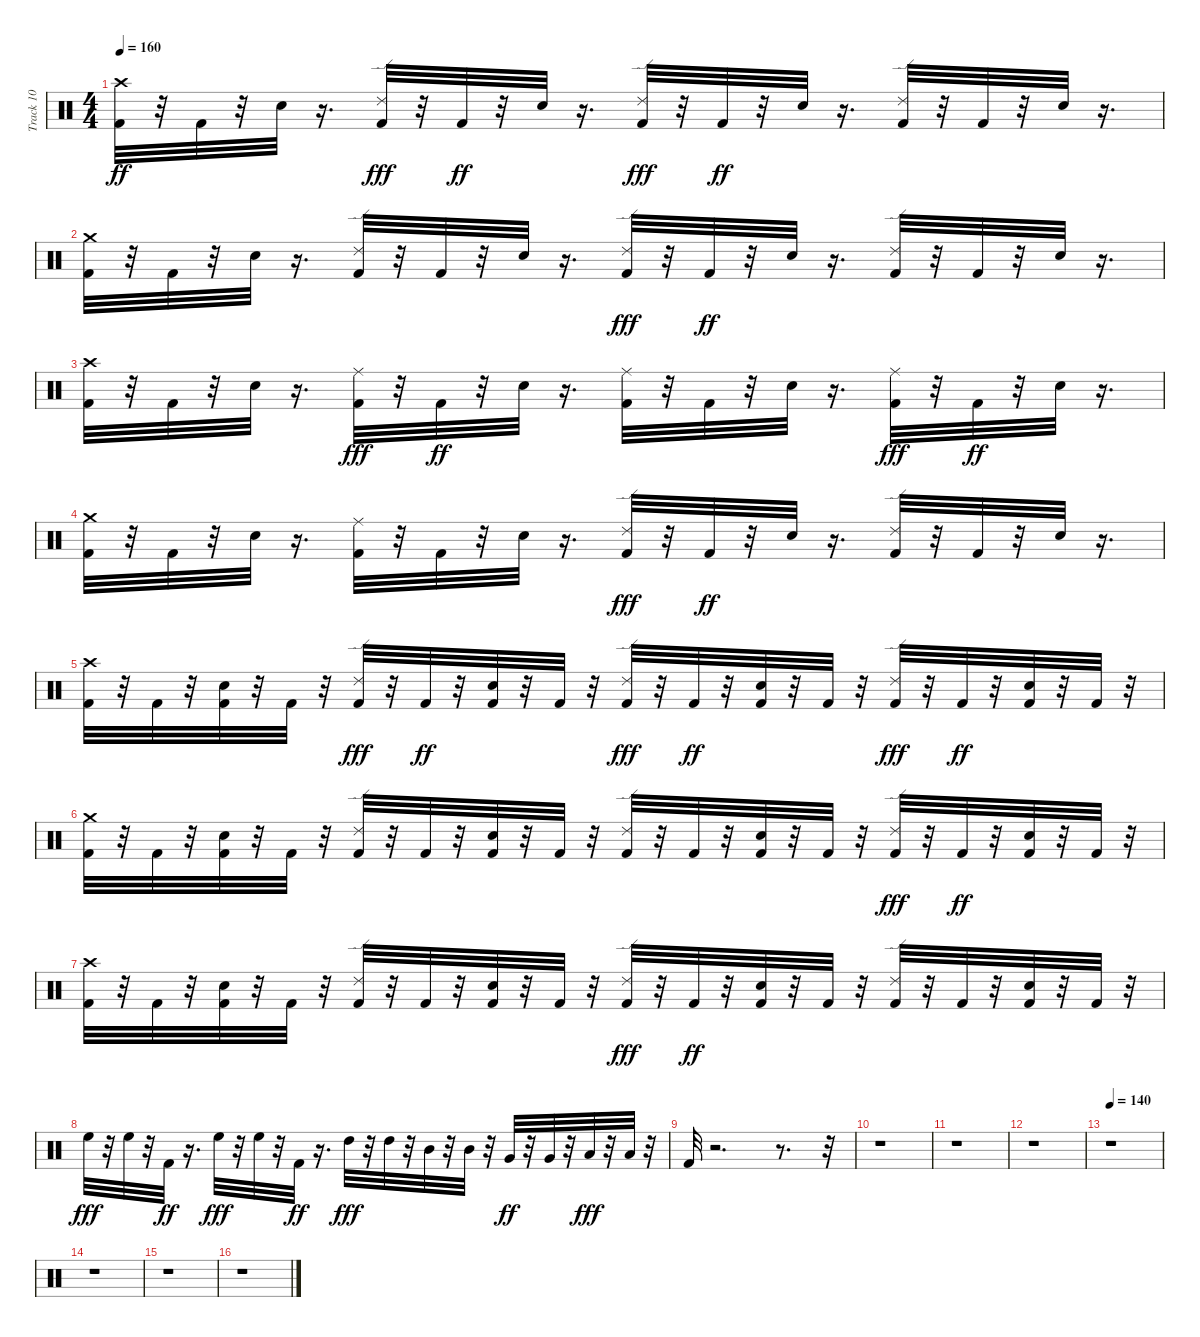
\track ("Track 10" "Track 10") {instrument percussion}
\staff {score}
\articulation defaults
\ts (4 4)
\tempo 160
\clef neutral
\ks c
("Kick (hit) 2" "Crash high (hit)").32{dy ff} r.32 "Kick (hit) 2".32 r.32 "Electric Snare (hit)".32 r.16{d} ("Kick (hit) 2" "Ride (edge) 2").32{dy fff} r.32 "Kick (hit) 2".32{dy ff} r.32 "Electric Snare (hit)".32 r.16{d} ("Kick (hit) 2" "Ride (edge) 2").32{dy fff} r.32 "Kick (hit) 2".32{dy ff} r.32 "Electric Snare (hit)".32 r.16{d} ("Ride (edge) 2" "Kick (hit) 2").32 r.32 "Kick (hit) 2".32 r.32 "Electric Snare (hit)".32 r.16{d} |
("Crash medium (hit)" "Kick (hit) 2").32 r.32 "Kick (hit) 2".32 r.32 "Electric Snare (hit)".32 r.16{d} ("Ride (edge) 2" "Kick (hit) 2").32 r.32 "Kick (hit) 2".32 r.32 "Electric Snare (hit)".32 r.16{d} ("Kick (hit) 2" "Ride (edge) 2").32{dy fff} r.32 "Kick (hit) 2".32{dy ff} r.32 "Electric Snare (hit)".32 r.16{d} ("Ride (edge) 2" "Kick (hit) 2").32 r.32 "Kick (hit) 2".32 r.32 "Electric Snare (hit)".32 r.16{d} |
("Crash high (hit)" "Kick (hit) 2").32 r.32 "Kick (hit) 2".32 r.32 "Electric Snare (hit)".32 r.16{d} ("Kick (hit) 2" "Ride (middle)").32{dy fff} r.32 "Kick (hit) 2".32{dy ff} r.32 "Electric Snare (hit)".32 r.16{d} ("Ride (middle)" "Kick (hit) 2").32 r.32 "Kick (hit) 2".32 r.32 "Electric Snare (hit)".32 r.16{d} ("Kick (hit) 2" "Ride (middle)").32{dy fff} r.32 "Kick (hit) 2".32{dy ff} r.32 "Electric Snare (hit)".32 r.16{d} |
("Kick (hit) 2" "Crash medium (hit)").32 r.32 "Kick (hit) 2".32 r.32 "Electric Snare (hit)".32 r.16{d} ("Ride (middle)" "Kick (hit) 2").32 r.32 "Kick (hit) 2".32 r.32 "Electric Snare (hit)".32 r.16{d} ("Kick (hit) 2" "Ride (edge) 2").32{dy fff} r.32 "Kick (hit) 2".32{dy ff} r.32 "Electric Snare (hit)".32 r.16{d} ("Ride (edge) 2" "Kick (hit) 2").32 r.32 "Kick (hit) 2".32 r.32 "Electric Snare (hit)".32 r.16{d} |
("Crash high (hit)" "Kick (hit) 2").32 r.32 "Kick (hit) 2".32 r.32 ("Kick (hit) 2" "Electric Snare (hit)").32 r.32 "Kick (hit) 2".32 r.32 ("Kick (hit) 2" "Ride (edge) 2").32{dy fff} r.32 "Kick (hit) 2".32{dy ff} r.32 ("Kick (hit) 2" "Electric Snare (hit)").32 r.32 "Kick (hit) 2".32 r.32 ("Kick (hit) 2" "Ride (edge) 2").32{dy fff} r.32 "Kick (hit) 2".32{dy ff} r.32 ("Electric Snare (hit)" "Kick (hit) 2").32 r.32 "Kick (hit) 2".32 r.32 ("Kick (hit) 2" "Ride (edge) 2").32{dy fff} r.32 "Kick (hit) 2".32{dy ff} r.32 ("Electric Snare (hit)" "Kick (hit) 2").32 r.32 "Kick (hit) 2".32 r.32 |
("Kick (hit) 2" "Crash medium (hit)").32 r.32 "Kick (hit) 2".32 r.32 ("Kick (hit) 2" "Electric Snare (hit)").32 r.32 "Kick (hit) 2".32 r.32 ("Ride (edge) 2" "Kick (hit) 2").32 r.32 "Kick (hit) 2".32 r.32 ("Electric Snare (hit)" "Kick (hit) 2").32 r.32 "Kick (hit) 2".32 r.32 ("Ride (edge) 2" "Kick (hit) 2").32 r.32 "Kick (hit) 2".32 r.32 ("Kick (hit) 2" "Electric Snare (hit)").32 r.32 "Kick (hit) 2".32 r.32 ("Kick (hit) 2" "Ride (edge) 2").32{dy fff} r.32 "Kick (hit) 2".32{dy ff} r.32 ("Kick (hit) 2" "Electric Snare (hit)").32 r.32 "Kick (hit) 2".32 r.32 |
("Kick (hit) 2" "Crash high (hit)").32 r.32 "Kick (hit) 2".32 r.32 ("Electric Snare (hit)" "Kick (hit) 2").32 r.32 "Kick (hit) 2".32 r.32 ("Ride (edge) 2" "Kick (hit) 2").32 r.32 "Kick (hit) 2".32 r.32 ("Kick (hit) 2" "Electric Snare (hit)").32 r.32 "Kick (hit) 2".32 r.32 ("Kick (hit) 2" "Ride (edge) 2").32{dy fff} r.32 "Kick (hit) 2".32{dy ff} r.32 ("Electric Snare (hit)" "Kick (hit) 2").32 r.32 "Kick (hit) 2".32 r.32 ("Ride (edge) 2" "Kick (hit) 2").32 r.32 "Kick (hit) 2".32 r.32 ("Kick (hit) 2" "Electric Snare (hit)").32 r.32 "Kick (hit) 2".32 r.32 |
"High Floor Tom (hit)".32{dy fff} r.32 "High Floor Tom (hit)".32 r.32 "Kick (hit) 2".32{dy ff} r.16{d} "High Floor Tom (hit)".32{dy fff} r.32 "High Floor Tom (hit)".32 r.32 "Kick (hit) 2".32{dy ff} r.16{d} "High Tom (hit)".32{dy fff} r.32 "High Tom (hit)".32 r.32 "Mid Tom (hit)".32 r.32 "Mid Tom (hit)".32 r.32 "Very Low Tom (hit)".32{dy ff} r.32 "Very Low Tom (hit)".32 r.32 "Low Tom (hit)".32{dy fff} r.32 "Low Tom (hit)".32 r.32 |
"Kick (hit) 2".32 r.2{d} r.8{d} r.32 |
r.1 |
r.1 |
r.1 |
\tempo 140
r.1 |
r.1 |
r.1 |
r.1
